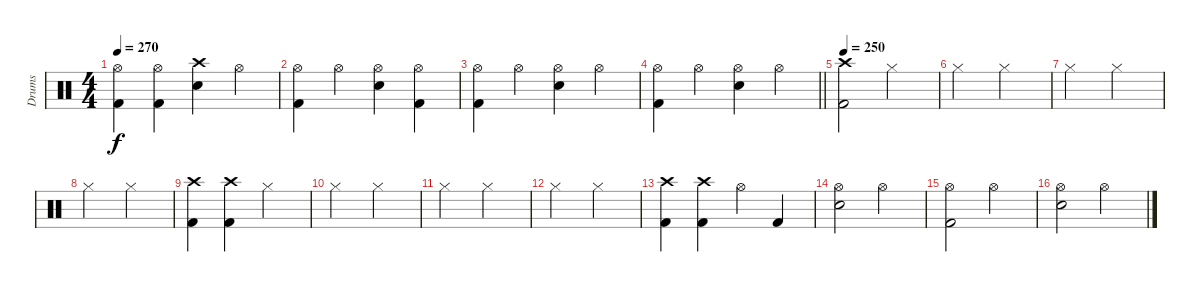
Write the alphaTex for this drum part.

\track ("Drums" "Drums") {instrument percussion}
\staff {score}
\articulation defaults
\ts (4 4)
\tempo 270
\clef neutral
\ks c
("Hi-Hat (open)" "Kick (hit) 2").4{dy f} ("Hi-Hat (open)" "Kick (hit) 2").4 ("Crash high (hit)" "Snare (hit) 2").4 "Hi-Hat (open)".4 |
("Hi-Hat (open)" "Kick (hit) 2").4 "Hi-Hat (open)".4 ("Hi-Hat (open)" "Snare (hit) 2").4 ("Hi-Hat (open)" "Kick (hit) 2").4 |
("Hi-Hat (open)" "Kick (hit) 2").4 "Hi-Hat (open)".4 ("Hi-Hat (open)" "Snare (hit) 2").4 "Hi-Hat (open)".4 |
\barLineRight lightlight
("Hi-Hat (open)" "Kick (hit) 2").4 "Hi-Hat (open)".4 ("Hi-Hat (open)" "Snare (hit) 2").4 "Hi-Hat (open)".4 |
\tempo 250
("Crash high (hit)" "Kick (hit) 2").2 "Hi-Hat (closed)".2 |
"Hi-Hat (closed)".2 "Hi-Hat (closed)".2 |
"Hi-Hat (closed)".2 "Hi-Hat (closed)".2 |
"Hi-Hat (closed)".2 "Hi-Hat (closed)".2 |
("Crash high (hit)" "Kick (hit) 2").4 ("Crash high (hit)" "Kick (hit) 2").4 "Hi-Hat (closed)".2 |
"Hi-Hat (closed)".2 "Hi-Hat (closed)".2 |
"Hi-Hat (closed)".2 "Hi-Hat (closed)".2 |
"Hi-Hat (closed)".2 "Hi-Hat (closed)".2 |
("Crash high (hit)" "Kick (hit) 2").4 ("Crash high (hit)" "Kick (hit) 2").4 "Hi-Hat (open)".4 "Kick (hit) 2".4 |
("Hi-Hat (open)" "Snare (hit) 2").2 "Hi-Hat (open)".2 |
("Hi-Hat (open)" "Kick (hit) 2").2 "Hi-Hat (open)".2 |
("Hi-Hat (open)" "Snare (hit) 2").2 "Hi-Hat (open)".2
